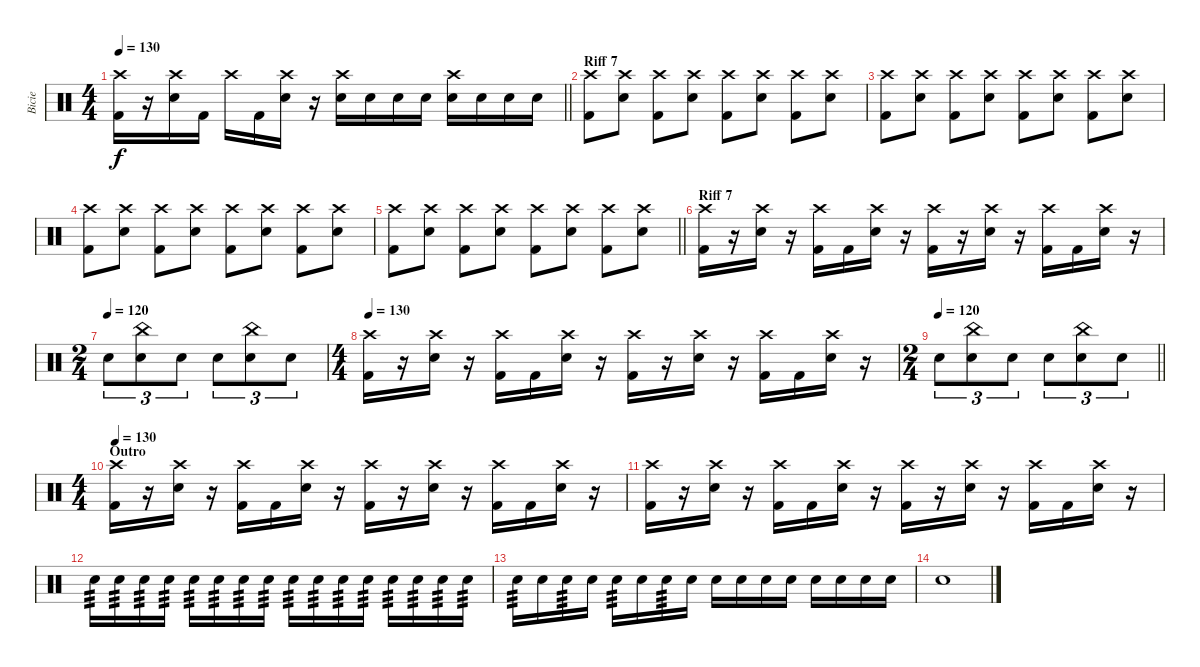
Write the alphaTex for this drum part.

\track ("Bicie" "Bicie") {instrument percussion}
\staff {score}
\articulation defaults
\ts (4 4)
\tempo 130
\clef neutral
\barLineRight lightlight
\ks c
("Crash high (hit)" "Kick (hit) 2").16{dy f} r.16 ("Crash high (hit)" "Snare (hit) 2").16 "Kick (hit) 2".16 "Crash high (hit)".16 "Kick (hit) 2".16 ("Crash high (hit)" "Snare (hit) 2").16 r.16 ("Crash high (hit)" "Snare (hit) 2").16 "Snare (hit) 2".16 "Snare (hit) 2".16 "Snare (hit) 2".16 ("Crash high (hit)" "Snare (hit) 2").16 "Snare (hit) 2".16 "Snare (hit) 2".16 "Snare (hit) 2".16 |
\section ("" "Riff 7")
("Crash high (hit)" "Kick (hit) 2").8 ("Crash high (hit)" "Snare (hit) 2").8 ("Crash high (hit)" "Kick (hit) 2").8 ("Crash high (hit)" "Snare (hit) 2").8 ("Crash high (hit)" "Kick (hit) 2").8 ("Crash high (hit)" "Snare (hit) 2").8 ("Crash high (hit)" "Kick (hit) 2").8 ("Crash high (hit)" "Snare (hit) 2").8 |
("Crash high (hit)" "Kick (hit) 2").8 ("Crash high (hit)" "Snare (hit) 2").8 ("Crash high (hit)" "Kick (hit) 2").8 ("Crash high (hit)" "Snare (hit) 2").8 ("Crash high (hit)" "Kick (hit) 2").8 ("Crash high (hit)" "Snare (hit) 2").8 ("Crash high (hit)" "Kick (hit) 2").8 ("Crash high (hit)" "Snare (hit) 2").8 |
("Crash high (hit)" "Kick (hit) 2").8 ("Crash high (hit)" "Snare (hit) 2").8 ("Crash high (hit)" "Kick (hit) 2").8 ("Crash high (hit)" "Snare (hit) 2").8 ("Crash high (hit)" "Kick (hit) 2").8 ("Crash high (hit)" "Snare (hit) 2").8 ("Crash high (hit)" "Kick (hit) 2").8 ("Crash high (hit)" "Snare (hit) 2").8 |
\barLineRight lightlight
("Crash high (hit)" "Kick (hit) 2").8 ("Crash high (hit)" "Snare (hit) 2").8 ("Crash high (hit)" "Kick (hit) 2").8 ("Crash high (hit)" "Snare (hit) 2").8 ("Crash high (hit)" "Kick (hit) 2").8 ("Crash high (hit)" "Snare (hit) 2").8 ("Crash high (hit)" "Kick (hit) 2").8 ("Crash high (hit)" "Snare (hit) 2").8 |
\section ("" "Riff 7")
("Crash high (hit)" "Kick (hit) 2").16 r.16 ("Crash high (hit)" "Snare (hit) 2").16 r.16 ("Crash high (hit)" "Kick (hit) 2").16 "Kick (hit) 2".16 ("Crash high (hit)" "Snare (hit) 2").16 r.16 ("Crash high (hit)" "Kick (hit) 2").16 r.16 ("Crash high (hit)" "Snare (hit) 2").16 r.16 ("Crash high (hit)" "Kick (hit) 2").16 "Kick (hit) 2".16 ("Crash high (hit)" "Snare (hit) 2").16 r.16 |
\ts (2 4)
\tempo (120)
"Snare (hit) 2".8{tu (3 2)} ("China (hit)" "Snare (hit) 2").8{tu (3 2)} "Snare (hit) 2".8{tu (3 2)} "Snare (hit) 2".8{tu (3 2)} ("China (hit)" "Snare (hit) 2").8{tu (3 2)} "Snare (hit) 2".8{tu (3 2)} |
\ts (4 4)
\tempo 130
("Crash high (hit)" "Kick (hit) 2").16 r.16 ("Crash high (hit)" "Snare (hit) 2").16 r.16 ("Crash high (hit)" "Kick (hit) 2").16 "Kick (hit) 2".16 ("Crash high (hit)" "Snare (hit) 2").16 r.16 ("Crash high (hit)" "Kick (hit) 2").16 r.16 ("Crash high (hit)" "Snare (hit) 2").16 r.16 ("Crash high (hit)" "Kick (hit) 2").16 "Kick (hit) 2".16 ("Crash high (hit)" "Snare (hit) 2").16 r.16 |
\ts (2 4)
\tempo 120
\barLineRight lightlight "Snare (hit) 2".8{tu (3 2)}
("China (hit)" "Snare (hit) 2").8{tu (3 2)} "Snare (hit) 2".8{tu (3 2)} "Snare (hit) 2".8{tu (3 2)} ("China (hit)" "Snare (hit) 2").8{tu (3 2)} "Snare (hit) 2".8{tu (3 2)} |
\ts (4 4)
\section ("" "Outro")
\tempo 130
("Crash high (hit)" "Kick (hit) 2").16 r.16 ("Crash high (hit)" "Snare (hit) 2").16 r.16 ("Crash high (hit)" "Kick (hit) 2").16 "Kick (hit) 2".16 ("Crash high (hit)" "Snare (hit) 2").16 r.16 ("Crash high (hit)" "Kick (hit) 2").16 r.16 ("Crash high (hit)" "Snare (hit) 2").16 r.16 ("Crash high (hit)" "Kick (hit) 2").16 "Kick (hit) 2".16 ("Crash high (hit)" "Snare (hit) 2").16 r.16 |
("Crash high (hit)" "Kick (hit) 2").16 r.16 ("Crash high (hit)" "Snare (hit) 2").16 r.16 ("Crash high (hit)" "Kick (hit) 2").16 "Kick (hit) 2".16 ("Crash high (hit)" "Snare (hit) 2").16 r.16 ("Crash high (hit)" "Kick (hit) 2").16 r.16 ("Crash high (hit)" "Snare (hit) 2").16 r.16 ("Crash high (hit)" "Kick (hit) 2").16 "Kick (hit) 2".16 ("Crash high (hit)" "Snare (hit) 2").16 r.16 |
"Snare (hit) 2".16{tp 3} "Snare (hit) 2".16{tp 3} "Snare (hit) 2".16{tp 3} "Snare (hit) 2".16{tp 3} "Snare (hit) 2".16{tp 3} "Snare (hit) 2".16{tp 3} "Snare (hit) 2".16{tp 3} "Snare (hit) 2".16{tp 3} "Snare (hit) 2".16{tp 3} "Snare (hit) 2".16{tp 3} "Snare (hit) 2".16{tp 3} "Snare (hit) 2".16{tp 3} "Snare (hit) 2".16{tp 3} "Snare (hit) 2".16{tp 3} "Snare (hit) 2".16{tp 3} "Snare (hit) 2".16{tp 3} |
"Snare (hit) 2".16{tp 3} "Snare (hit) 2".16 "Snare (hit) 2".16{tp 3} "Snare (hit) 2".16 "Snare (hit) 2".16{tp 3} "Snare (hit) 2".16 "Snare (hit) 2".16{tp 3} "Snare (hit) 2".16 "Snare (hit) 2".16 "Snare (hit) 2".16 "Snare (hit) 2".16 "Snare (hit) 2".16 "Snare (hit) 2".16 "Snare (hit) 2".16 "Snare (hit) 2".16 "Snare (hit) 2".16 |
"Snare (hit) 2".1
